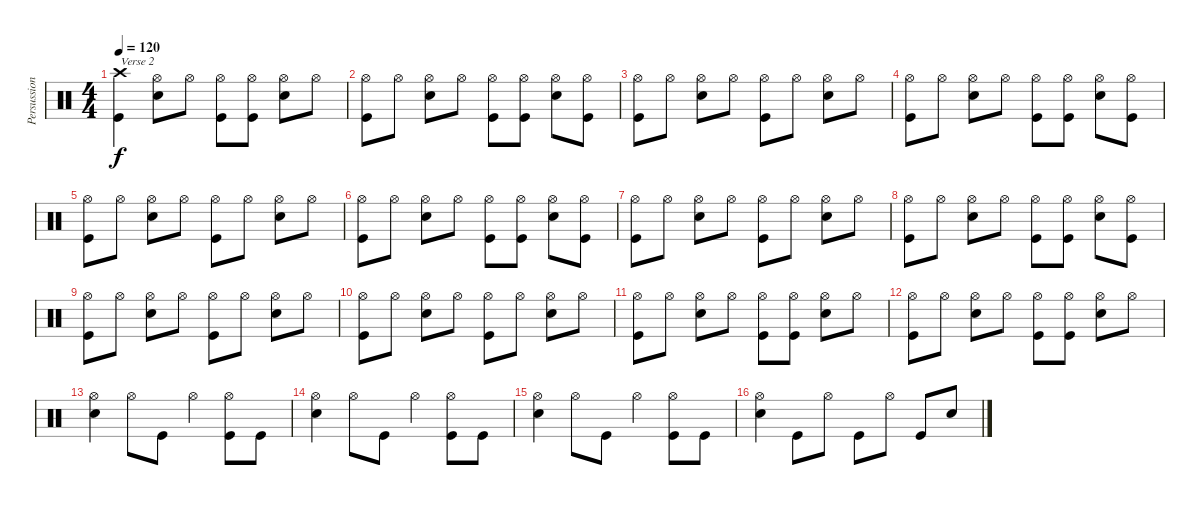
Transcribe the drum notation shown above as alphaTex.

\track ("Persussion" "Persussion") {instrument percussion}
\staff {score}
\articulation defaults
\ts (4 4)
\tempo 120
\clef neutral
\ks c
("Crash high (hit)" "Kick (hit)").4{txt "Verse 2" dy f} ("Hi-Hat (open)" "Snare (hit) 2").8 "Hi-Hat (open)".8 ("Hi-Hat (open)" "Kick (hit)").8 ("Hi-Hat (open)" "Kick (hit)").8 ("Hi-Hat (open)" "Snare (hit) 2").8 "Hi-Hat (open)".8 |
("Hi-Hat (open)" "Kick (hit)").8 "Hi-Hat (open)".8 ("Hi-Hat (open)" "Snare (hit) 2").8 "Hi-Hat (open)".8 ("Hi-Hat (open)" "Kick (hit)").8 ("Hi-Hat (open)" "Kick (hit)").8 ("Hi-Hat (open)" "Snare (hit) 2").8 ("Hi-Hat (open)" "Kick (hit)").8 |
("Hi-Hat (open)" "Kick (hit)").8 "Hi-Hat (open)".8 ("Hi-Hat (open)" "Snare (hit) 2").8 "Hi-Hat (open)".8 ("Hi-Hat (open)" "Kick (hit)").8 "Hi-Hat (open)".8 ("Hi-Hat (open)" "Snare (hit) 2").8 "Hi-Hat (open)".8 |
("Hi-Hat (open)" "Kick (hit)").8 "Hi-Hat (open)".8 ("Hi-Hat (open)" "Snare (hit) 2").8 "Hi-Hat (open)".8 ("Hi-Hat (open)" "Kick (hit)").8 ("Hi-Hat (open)" "Kick (hit)").8 ("Hi-Hat (open)" "Snare (hit) 2").8 ("Hi-Hat (open)" "Kick (hit)").8 |
("Hi-Hat (open)" "Kick (hit)").8 "Hi-Hat (open)".8 ("Hi-Hat (open)" "Snare (hit) 2").8 "Hi-Hat (open)".8 ("Hi-Hat (open)" "Kick (hit)").8 "Hi-Hat (open)".8 ("Hi-Hat (open)" "Snare (hit) 2").8 "Hi-Hat (open)".8 |
("Hi-Hat (open)" "Kick (hit)").8 "Hi-Hat (open)".8 ("Hi-Hat (open)" "Snare (hit) 2").8 "Hi-Hat (open)".8 ("Hi-Hat (open)" "Kick (hit)").8 ("Hi-Hat (open)" "Kick (hit)").8 ("Hi-Hat (open)" "Snare (hit) 2").8 ("Hi-Hat (open)" "Kick (hit)").8 |
("Hi-Hat (open)" "Kick (hit)").8 "Hi-Hat (open)".8 ("Hi-Hat (open)" "Snare (hit) 2").8 "Hi-Hat (open)".8 ("Hi-Hat (open)" "Kick (hit)").8 "Hi-Hat (open)".8 ("Hi-Hat (open)" "Snare (hit) 2").8 "Hi-Hat (open)".8 |
("Hi-Hat (open)" "Kick (hit)").8 "Hi-Hat (open)".8 ("Hi-Hat (open)" "Snare (hit) 2").8 "Hi-Hat (open)".8 ("Hi-Hat (open)" "Kick (hit)").8 ("Hi-Hat (open)" "Kick (hit)").8 ("Hi-Hat (open)" "Snare (hit) 2").8 ("Hi-Hat (open)" "Kick (hit)").8 |
("Hi-Hat (open)" "Kick (hit)").8 "Hi-Hat (open)".8 ("Hi-Hat (open)" "Snare (hit) 2").8 "Hi-Hat (open)".8 ("Hi-Hat (open)" "Kick (hit)").8 "Hi-Hat (open)".8 ("Hi-Hat (open)" "Snare (hit) 2").8 "Hi-Hat (open)".8 |
("Hi-Hat (open)" "Kick (hit)").8 "Hi-Hat (open)".8 ("Hi-Hat (open)" "Snare (hit) 2").8 "Hi-Hat (open)".8 ("Hi-Hat (open)" "Kick (hit)").8 "Hi-Hat (open)".8 ("Hi-Hat (open)" "Snare (hit) 2").8 "Hi-Hat (open)".8 |
("Hi-Hat (open)" "Kick (hit)").8 "Hi-Hat (open)".8 ("Hi-Hat (open)" "Snare (hit) 2").8 "Hi-Hat (open)".8 ("Hi-Hat (open)" "Kick (hit)").8 ("Hi-Hat (open)" "Kick (hit)").8 ("Hi-Hat (open)" "Snare (hit) 2").8 "Hi-Hat (open)".8 |
("Hi-Hat (open)" "Kick (hit)").8 "Hi-Hat (open)".8 ("Hi-Hat (open)" "Snare (hit) 2").8 "Hi-Hat (open)".8 ("Hi-Hat (open)" "Kick (hit)").8 ("Hi-Hat (open)" "Kick (hit)").8 ("Hi-Hat (open)" "Snare (hit) 2").8 "Hi-Hat (open)".8 |
("Hi-Hat (open)" "Snare (hit) 2").4 "Hi-Hat (open)".8 "Kick (hit)".8 "Hi-Hat (open)".4 ("Hi-Hat (open)" "Kick (hit)").8 "Kick (hit)".8 |
("Hi-Hat (open)" "Snare (hit) 2").4 "Hi-Hat (open)".8 "Kick (hit)".8 "Hi-Hat (open)".4 ("Hi-Hat (open)" "Kick (hit)").8 "Kick (hit)".8 |
("Hi-Hat (open)" "Snare (hit) 2").4 "Hi-Hat (open)".8 "Kick (hit)".8 "Hi-Hat (open)".4 ("Hi-Hat (open)" "Kick (hit)").8 "Kick (hit)".8 |
("Hi-Hat (open)" "Snare (hit) 2").4 "Kick (hit)".8 "Hi-Hat (open)".8 "Kick (hit)".8 "Hi-Hat (open)".8 "Kick (hit)".8 "Snare (hit) 2".8
